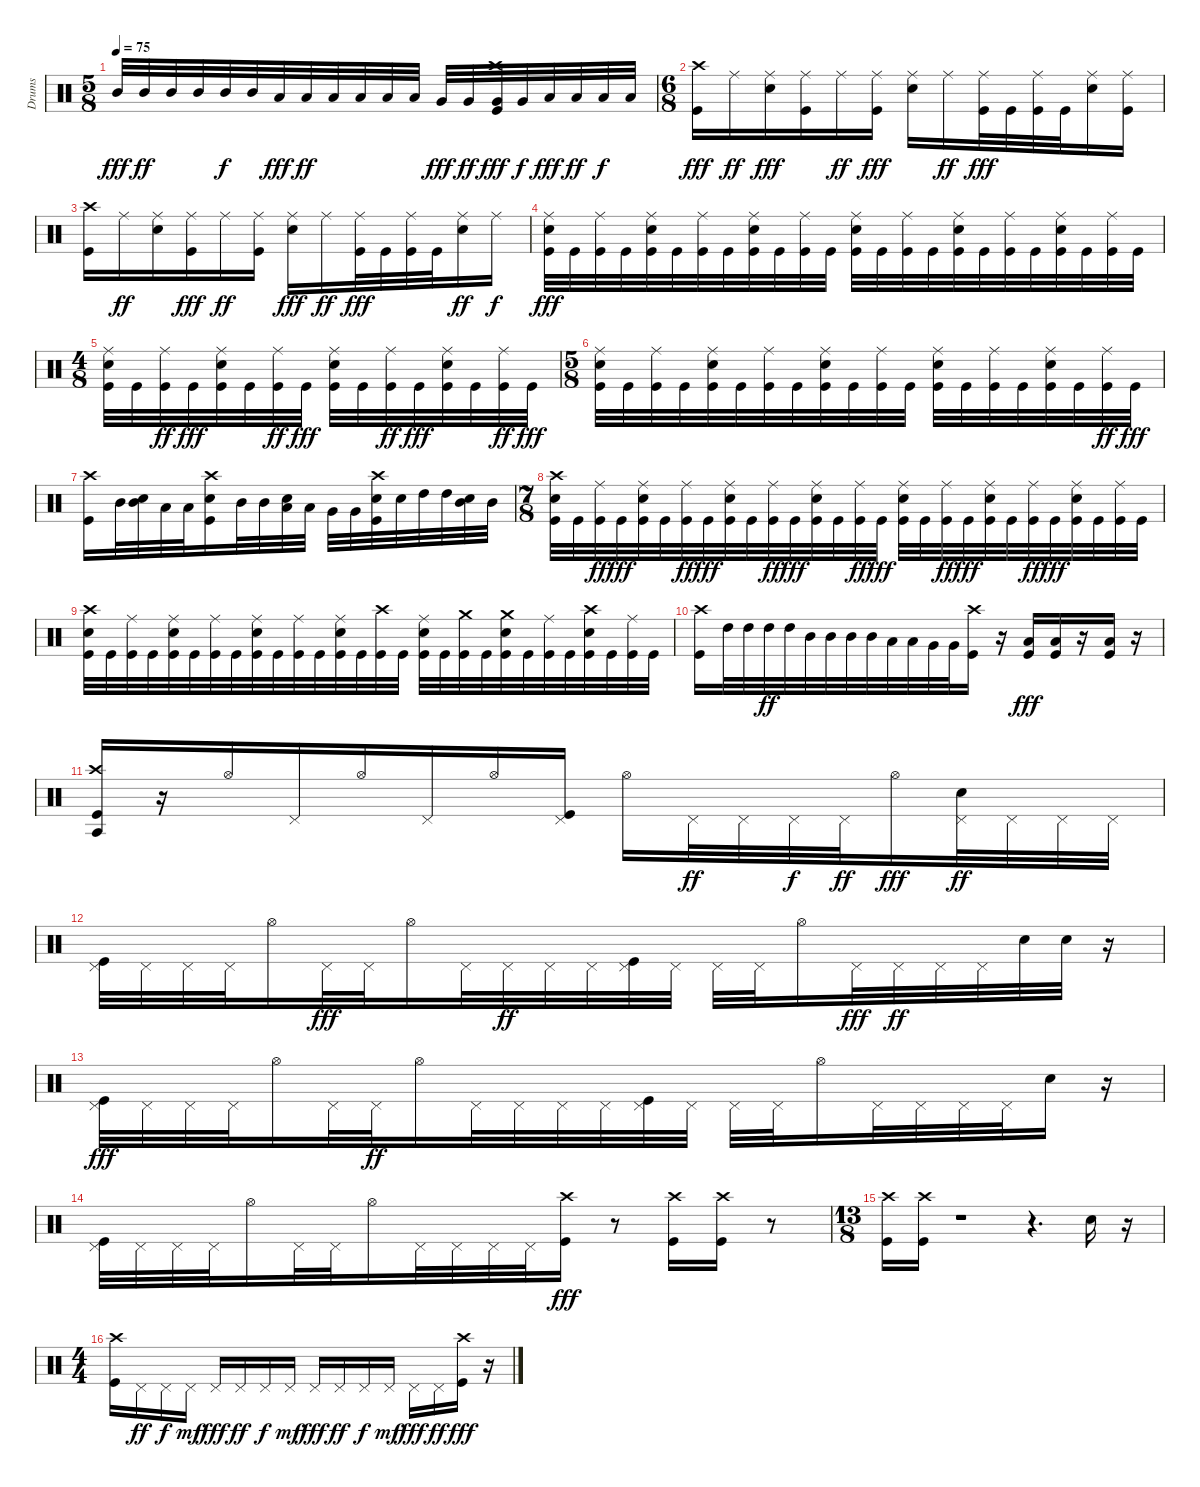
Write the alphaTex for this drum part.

\track ("Drums" "Drums") {instrument percussion}
\staff {score}
\articulation defaults
\ts (5 8)
\tempo 75
\clef neutral
\ks c "Mid Tom (hit)".32{dy fff} "Mid Tom (hit)".32{dy ff} "Mid Tom (hit)".32 "Mid Tom (hit)".32 "Mid Tom (hit)".32{dy f} "Mid Tom (hit)".32 "Low Tom (hit)".32{dy fff} "Low Tom (hit)".32{dy ff} "Low Tom (hit)".32 "Low Tom (hit)".32 "Low Tom (hit)".32 "Low Tom (hit)".32 "Very Low Tom (hit)".32{dy fff} "Very Low Tom (hit)".32{dy ff}
("Crash high (hit)" "Kick (hit)" "Very Low Tom (hit)").32{dy fff} "Very Low Tom (hit)".32{dy f} "Low Floor Tom (hit)".32{dy fff} "Low Floor Tom (hit)".32{dy ff} "Low Floor Tom (hit)".32{dy f} "Low Floor Tom (hit)".32 |
\ts (6 8)
("Crash high (hit)" "Kick (hit)").16{dy fff} "Ride (middle)".16{dy ff} ("Ride (middle)" "Snare (hit) 2").16{dy fff} ("Ride (middle)" "Kick (hit)").16 "Ride (middle)".16{dy ff} ("Ride (middle)" "Kick (hit)").16{dy fff} ("Ride (middle)" "Snare (hit) 2").16 "Ride (middle)".16{dy ff} ("Ride (middle)" "Kick (hit)").32{dy fff} "Kick (hit)".32 ("Ride (middle)" "Kick (hit)").32 "Kick (hit)".32 ("Ride (middle)" "Snare (hit) 2").16 ("Kick (hit)" "Ride (middle)").16 |
("Kick (hit)" "Crash high (hit)").16 "Ride (middle)".16{dy ff} ("Snare (hit) 2" "Ride (middle)").16 ("Kick (hit)" "Ride (middle)").16{dy fff} "Ride (middle)".16{dy ff} ("Kick (hit)" "Ride (middle)").16 ("Snare (hit) 2" "Ride (middle)").16{dy fff} "Ride (middle)".16{dy ff} ("Kick (hit)" "Ride (middle)").32{dy fff} "Kick (hit)".32 ("Kick (hit)" "Ride (middle)").32 "Kick (hit)".32 ("Snare (hit) 2" "Ride (middle)").16{dy ff} "Ride (middle)".16{dy f} |
("Ride (middle)" "Snare (hit) 2" "Kick (hit)").32{dy fff} "Kick (hit)".32 ("Ride (middle)" "Kick (hit)").32 "Kick (hit)".32 ("Snare (hit) 2" "Ride (middle)" "Kick (hit)").32 "Kick (hit)".32 ("Ride (middle)" "Kick (hit)").32 "Kick (hit)".32 ("Snare (hit) 2" "Ride (middle)" "Kick (hit)").32 "Kick (hit)".32 ("Ride (middle)" "Kick (hit)").32 "Kick (hit)".32 ("Snare (hit) 2" "Ride (middle)" "Kick (hit)").32 "Kick (hit)".32 ("Ride (middle)" "Kick (hit)").32 "Kick (hit)".32 ("Snare (hit) 2" "Ride (middle)" "Kick (hit)").32 "Kick (hit)".32 ("Ride (middle)" "Kick (hit)").32 "Kick (hit)".32 ("Snare (hit) 2" "Ride (middle)" "Kick (hit)").32 "Kick (hit)".32 ("Ride (middle)" "Kick (hit)").32 "Kick (hit)".32 |
\ts (4 8)
("Kick (hit)" "Snare (hit) 2" "Ride (middle)").32 "Kick (hit)".32 ("Kick (hit)" "Ride (middle)").32{dy ff} "Kick (hit)".32{dy fff} ("Kick (hit)" "Ride (middle)" "Snare (hit) 2").32 "Kick (hit)".32 ("Kick (hit)" "Ride (middle)").32{dy ff} "Kick (hit)".32{dy fff} ("Kick (hit)" "Ride (middle)" "Snare (hit) 2").32 "Kick (hit)".32 ("Kick (hit)" "Ride (middle)").32{dy ff} "Kick (hit)".32{dy fff} ("Kick (hit)" "Ride (middle)" "Snare (hit) 2").32 "Kick (hit)".32 ("Kick (hit)" "Ride (middle)").32{dy ff} "Kick (hit)".32{dy fff} |
\ts (5 8)
("Ride (middle)" "Snare (hit) 2" "Kick (hit)").32 "Kick (hit)".32 ("Ride (middle)" "Kick (hit)").32 "Kick (hit)".32 ("Snare (hit) 2" "Ride (middle)" "Kick (hit)").32 "Kick (hit)".32 ("Ride (middle)" "Kick (hit)").32 "Kick (hit)".32 ("Snare (hit) 2" "Ride (middle)" "Kick (hit)").32 "Kick (hit)".32 ("Ride (middle)" "Kick (hit)").32 "Kick (hit)".32 ("Snare (hit) 2" "Ride (middle)" "Kick (hit)").32 "Kick (hit)".32 ("Ride (middle)" "Kick (hit)").32 "Kick (hit)".32 ("Kick (hit)" "Ride (middle)" "Snare (hit) 2").32 "Kick (hit)".32 ("Kick (hit)" "Ride (middle)").32{dy ff} "Kick (hit)".32{dy fff} |
("Crash high (hit)" "Kick (hit)").16 "Mid Tom (hit)".32 ("Snare (hit) 2" "Mid Tom (hit)").32 "Low Tom (hit)".32 "Low Tom (hit)".32 ("Snare (hit) 2" "Crash high (hit)" "Kick (hit)").16 "Mid Tom (hit)".32 "Mid Tom (hit)".32 ("Snare (hit) 2" "Low Tom (hit)").32 "Low Tom (hit)".32 "Very Low Tom (hit)".32 "Very Low Tom (hit)".32 ("Snare (hit) 2" "Crash high (hit)" "Kick (hit)").32 "Snare (hit) 2".32 "High Tom (hit)".32 "High Tom (hit)".32 ("Snare (hit) 2" "Mid Tom (hit)").32 "Mid Tom (hit)".32 |
\ts (7 8)
("Crash high (hit)" "Kick (hit)" "Snare (hit) 2").32 "Kick (hit)".32 ("Kick (hit)" "Ride (middle)").32{dy ff} "Kick (hit)".32{dy fff} ("Kick (hit)" "Ride (middle)" "Snare (hit) 2").32 "Kick (hit)".32 ("Kick (hit)" "Ride (middle)").32{dy ff} "Kick (hit)".32{dy fff} ("Kick (hit)" "Ride (middle)" "Snare (hit) 2").32 "Kick (hit)".32 ("Kick (hit)" "Ride (middle)").32{dy ff} "Kick (hit)".32{dy fff} ("Kick (hit)" "Ride (middle)" "Snare (hit) 2").32 "Kick (hit)".32 ("Kick (hit)" "Ride (middle)").32{dy ff} "Kick (hit)".32{dy fff} ("Kick (hit)" "Ride (middle)" "Snare (hit) 2").32 "Kick (hit)".32 ("Kick (hit)" "Ride (middle)").32{dy ff} "Kick (hit)".32{dy fff} ("Kick (hit)" "Ride (middle)" "Snare (hit) 2").32 "Kick (hit)".32 ("Kick (hit)" "Ride (middle)").32{dy ff} "Kick (hit)".32{dy fff} ("Snare (hit) 2" "Ride (middle)" "Kick (hit)").32 "Kick (hit)".32 ("Ride (middle)" "Kick (hit)").32 "Kick (hit)".32 |
("Snare (hit) 2" "Kick (hit)" "Crash high (hit)").32 "Kick (hit)".32 ("Ride (middle)" "Kick (hit)").32 "Kick (hit)".32 ("Snare (hit) 2" "Ride (middle)" "Kick (hit)").32 "Kick (hit)".32 ("Ride (middle)" "Kick (hit)").32 "Kick (hit)".32 ("Snare (hit) 2" "Ride (middle)" "Kick (hit)").32 "Kick (hit)".32 ("Ride (middle)" "Kick (hit)").32 "Kick (hit)".32 ("Snare (hit) 2" "Ride (middle)" "Kick (hit)").32 "Kick (hit)".32 ("Crash high (hit)" "Kick (hit)").32 "Kick (hit)".32 ("Snare (hit) 2" "Ride (middle)" "Kick (hit)").32 "Kick (hit)".32 ("Crash medium (hit)" "Kick (hit)").32 "Kick (hit)".32 ("Crash medium (hit)" "Snare (hit) 2" "Kick (hit)").32 "Kick (hit)".32 ("Ride (middle)" "Kick (hit)").32 "Kick (hit)".32 ("Crash high (hit)" "Kick (hit)" "Snare (hit) 2").32 "Kick (hit)".32 ("Kick (hit)" "Ride (middle)").32 "Kick (hit)".32 |
("Crash high (hit)" "Kick (hit)").16 "High Tom (hit)".32{balance 14} "High Tom (hit)".32{balance 13} "High Tom (hit)".32{dy ff balance 11} "High Tom (hit)".32{balance 10} "Mid Tom (hit)".32{balance 9} "Mid Tom (hit)".32{balance 8} "Mid Tom (hit)".32{balance 7} "Mid Tom (hit)".32{balance 5} "Low Tom (hit)".32{balance 4} "Low Tom (hit)".32{balance 3} "Very Low Tom (hit)".32{balance 9} "Very Low Tom (hit)".32{balance 9} ("Crash high (hit)" "Kick (hit)").16 r.16 ("Kick (hit)" "Low Floor Tom (hit)").16{dy fff} ("Kick (hit)" "Low Floor Tom (hit)").16 r.16 ("Kick (hit)" "Low Floor Tom (hit)").16 r.16 |
("Agogo tow (hit)" "Crash high (hit)" "Kick (hit)").16 r.16 "Hi-Hat (open)".16 "Pedal Hi-Hat (hit)".16 "Hi-Hat (open)".16 "Pedal Hi-Hat (hit)".16 "Hi-Hat (open)".16 ("Kick (hit)" "Pedal Hi-Hat (hit)").16 "Hi-Hat (open)".16 "Pedal Hi-Hat (hit)".32{dy ff} "Pedal Hi-Hat (hit)".32 "Pedal Hi-Hat (hit)".32{dy f} "Pedal Hi-Hat (hit)".32{dy ff} "Hi-Hat (open)".16{dy fff} ("Snare (hit) 2" "Pedal Hi-Hat (hit)").32{dy ff} "Pedal Hi-Hat (hit)".32 "Pedal Hi-Hat (hit)".32 "Pedal Hi-Hat (hit)".32 |
("Pedal Hi-Hat (hit)" "Kick (hit)").32 "Pedal Hi-Hat (hit)".32 "Pedal Hi-Hat (hit)".32 "Pedal Hi-Hat (hit)".32 "Hi-Hat (open)".16 "Pedal Hi-Hat (hit)".32{dy fff} "Pedal Hi-Hat (hit)".32 "Hi-Hat (open)".16 "Pedal Hi-Hat (hit)".32 "Pedal Hi-Hat (hit)".32{dy ff} "Pedal Hi-Hat (hit)".32 "Pedal Hi-Hat (hit)".32 ("Pedal Hi-Hat (hit)" "Kick (hit)").32 "Pedal Hi-Hat (hit)".32 "Pedal Hi-Hat (hit)".32 "Pedal Hi-Hat (hit)".32 "Hi-Hat (open)".16 "Pedal Hi-Hat (hit)".32{dy fff} "Pedal Hi-Hat (hit)".32{dy ff} "Pedal Hi-Hat (hit)".32 "Pedal Hi-Hat (hit)".32 "Snare (hit) 2".32 "Snare (hit) 2".32 r.16 |
("Kick (hit)" "Pedal Hi-Hat (hit)").32{dy fff} "Pedal Hi-Hat (hit)".32 "Pedal Hi-Hat (hit)".32 "Pedal Hi-Hat (hit)".32 "Hi-Hat (open)".16 "Pedal Hi-Hat (hit)".32 "Pedal Hi-Hat (hit)".32{dy ff} "Hi-Hat (open)".16 "Pedal Hi-Hat (hit)".32 "Pedal Hi-Hat (hit)".32 "Pedal Hi-Hat (hit)".32 "Pedal Hi-Hat (hit)".32 ("Kick (hit)" "Pedal Hi-Hat (hit)").32 "Pedal Hi-Hat (hit)".32 "Pedal Hi-Hat (hit)".32 "Pedal Hi-Hat (hit)".32 "Hi-Hat (open)".16 "Pedal Hi-Hat (hit)".32 "Pedal Hi-Hat (hit)".32 "Pedal Hi-Hat (hit)".32 "Pedal Hi-Hat (hit)".32 "Snare (hit) 2".16 r.16 |
("Pedal Hi-Hat (hit)" "Kick (hit)").32 "Pedal Hi-Hat (hit)".32 "Pedal Hi-Hat (hit)".32 "Pedal Hi-Hat (hit)".32 "Hi-Hat (open)".16 "Pedal Hi-Hat (hit)".32 "Pedal Hi-Hat (hit)".32 "Hi-Hat (open)".16 "Pedal Hi-Hat (hit)".32 "Pedal Hi-Hat (hit)".32 "Pedal Hi-Hat (hit)".32 "Pedal Hi-Hat (hit)".32 ("Crash high (hit)" "Kick (hit)").16{dy fff} r.8 ("Crash high (hit)" "Kick (hit)").16 ("Crash high (hit)" "Kick (hit)").16 r.8 |
\ts (13 8)
("Crash high (hit)" "Kick (hit)").16 ("Crash high (hit)" "Kick (hit)").16 r.1 r.4{d} "Snare (hit) 2".16 r.16 |
\ts (4 4)
("Crash high (hit)" "Kick (hit)").16 "Pedal Hi-Hat (hit)".16{dy ff} "Pedal Hi-Hat (hit)".16{dy f} "Pedal Hi-Hat (hit)".16{dy mf} "Pedal Hi-Hat (hit)".16{dy fff} "Pedal Hi-Hat (hit)".16{dy ff} "Pedal Hi-Hat (hit)".16{dy f} "Pedal Hi-Hat (hit)".16{dy mf} "Pedal Hi-Hat (hit)".16{dy fff} "Pedal Hi-Hat (hit)".16{dy ff} "Pedal Hi-Hat (hit)".16{dy f} "Pedal Hi-Hat (hit)".16{dy mf} "Pedal Hi-Hat (hit)".16{dy fff} "Pedal Hi-Hat (hit)".16{dy ff} ("Kick (hit)" "Crash high (hit)").16{dy fff} r.16
